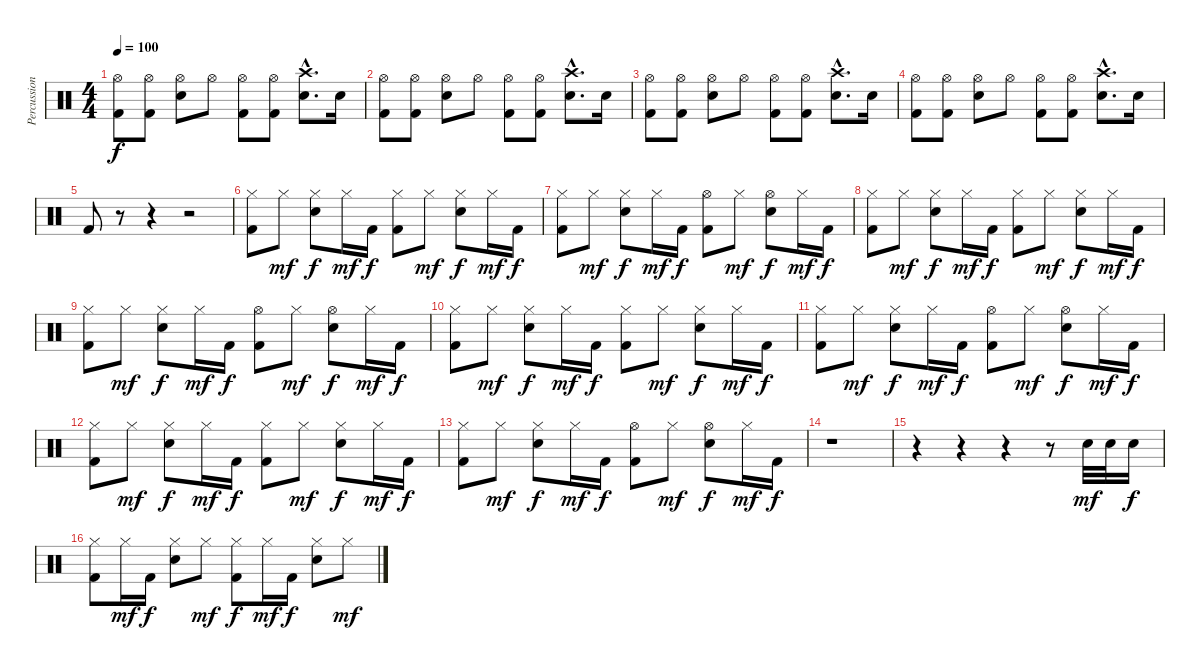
\track ("Percussioni" "Percussion") {instrument percussion}
\staff {score}
\articulation defaults
\ts (4 4)
\tempo 100
\clef neutral
\ks c
("Hi-Hat (open)" "Kick (hit) 2").8{dy f} ("Hi-Hat (open)" "Kick (hit) 2").8 ("Hi-Hat (open)" "Snare (hit) 2").8 "Hi-Hat (open)".8 ("Hi-Hat (open)" "Kick (hit) 2").8 ("Hi-Hat (open)" "Kick (hit) 2").8 ("Crash high (hit)"{hac} "Snare (hit) 2"{hac}).8{d} "Snare (hit) 2".16 |
("Hi-Hat (open)" "Kick (hit) 2").8 ("Hi-Hat (open)" "Kick (hit) 2").8 ("Hi-Hat (open)" "Snare (hit) 2").8 "Hi-Hat (open)".8 ("Hi-Hat (open)" "Kick (hit) 2").8 ("Hi-Hat (open)" "Kick (hit) 2").8 ("Crash high (hit)"{hac} "Snare (hit) 2"{hac}).8{d} "Snare (hit) 2".16 |
("Hi-Hat (open)" "Kick (hit) 2").8 ("Hi-Hat (open)" "Kick (hit) 2").8 ("Hi-Hat (open)" "Snare (hit) 2").8 "Hi-Hat (open)".8 ("Hi-Hat (open)" "Kick (hit) 2").8 ("Hi-Hat (open)" "Kick (hit) 2").8 ("Crash high (hit)"{hac} "Snare (hit) 2"{hac}).8{d} "Snare (hit) 2".16 |
("Hi-Hat (open)" "Kick (hit) 2").8 ("Hi-Hat (open)" "Kick (hit) 2").8 ("Hi-Hat (open)" "Snare (hit) 2").8 "Hi-Hat (open)".8 ("Hi-Hat (open)" "Kick (hit) 2").8 ("Hi-Hat (open)" "Kick (hit) 2").8 ("Crash high (hit)"{hac} "Snare (hit) 2"{hac}).8{d} "Snare (hit) 2".16 |
"Kick (hit) 2".8 r.8 r.4 r.2 |
("Hi-Hat (closed)" "Kick (hit) 2").8 "Hi-Hat (closed)".8{dy mf} ("Hi-Hat (closed)" "Snare (hit) 2").8{dy f} "Hi-Hat (closed)".16{dy mf} "Kick (hit) 2".16{dy f} ("Hi-Hat (closed)" "Kick (hit) 2").8 "Hi-Hat (closed)".8{dy mf} ("Hi-Hat (closed)" "Snare (hit) 2").8{dy f} "Hi-Hat (closed)".16{dy mf} "Kick (hit) 2".16{dy f} |
("Hi-Hat (closed)" "Kick (hit) 2").8 "Hi-Hat (closed)".8{dy mf} ("Hi-Hat (closed)" "Snare (hit) 2").8{dy f} "Hi-Hat (closed)".16{dy mf} "Kick (hit) 2".16{dy f} ("Hi-Hat (open)" "Kick (hit) 2").8 "Hi-Hat (closed)".8{dy mf} ("Hi-Hat (open)" "Snare (hit) 2").8{dy f} "Hi-Hat (closed)".16{dy mf} "Kick (hit) 2".16{dy f} |
("Hi-Hat (closed)" "Kick (hit) 2").8 "Hi-Hat (closed)".8{dy mf} ("Hi-Hat (closed)" "Snare (hit) 2").8{dy f} "Hi-Hat (closed)".16{dy mf} "Kick (hit) 2".16{dy f} ("Hi-Hat (closed)" "Kick (hit) 2").8 "Hi-Hat (closed)".8{dy mf} ("Hi-Hat (closed)" "Snare (hit) 2").8{dy f} "Hi-Hat (closed)".16{dy mf} "Kick (hit) 2".16{dy f} |
("Hi-Hat (closed)" "Kick (hit) 2").8 "Hi-Hat (closed)".8{dy mf} ("Hi-Hat (closed)" "Snare (hit) 2").8{dy f} "Hi-Hat (closed)".16{dy mf} "Kick (hit) 2".16{dy f} ("Hi-Hat (open)" "Kick (hit) 2").8 "Hi-Hat (closed)".8{dy mf} ("Hi-Hat (open)" "Snare (hit) 2").8{dy f} "Hi-Hat (closed)".16{dy mf} "Kick (hit) 2".16{dy f} |
("Hi-Hat (closed)" "Kick (hit) 2").8 "Hi-Hat (closed)".8{dy mf} ("Hi-Hat (closed)" "Snare (hit) 2").8{dy f} "Hi-Hat (closed)".16{dy mf} "Kick (hit) 2".16{dy f} ("Hi-Hat (closed)" "Kick (hit) 2").8 "Hi-Hat (closed)".8{dy mf} ("Hi-Hat (closed)" "Snare (hit) 2").8{dy f} "Hi-Hat (closed)".16{dy mf} "Kick (hit) 2".16{dy f} |
("Hi-Hat (closed)" "Kick (hit) 2").8 "Hi-Hat (closed)".8{dy mf} ("Hi-Hat (closed)" "Snare (hit) 2").8{dy f} "Hi-Hat (closed)".16{dy mf} "Kick (hit) 2".16{dy f} ("Hi-Hat (open)" "Kick (hit) 2").8 "Hi-Hat (closed)".8{dy mf} ("Hi-Hat (open)" "Snare (hit) 2").8{dy f} "Hi-Hat (closed)".16{dy mf} "Kick (hit) 2".16{dy f} |
("Hi-Hat (closed)" "Kick (hit) 2").8 "Hi-Hat (closed)".8{dy mf} ("Hi-Hat (closed)" "Snare (hit) 2").8{dy f} "Hi-Hat (closed)".16{dy mf} "Kick (hit) 2".16{dy f} ("Hi-Hat (closed)" "Kick (hit) 2").8 "Hi-Hat (closed)".8{dy mf} ("Hi-Hat (closed)" "Snare (hit) 2").8{dy f} "Hi-Hat (closed)".16{dy mf} "Kick (hit) 2".16{dy f} |
("Hi-Hat (closed)" "Kick (hit) 2").8 "Hi-Hat (closed)".8{dy mf} ("Hi-Hat (closed)" "Snare (hit) 2").8{dy f} "Hi-Hat (closed)".16{dy mf} "Kick (hit) 2".16{dy f} ("Hi-Hat (open)" "Kick (hit) 2").8 "Hi-Hat (closed)".8{dy mf} ("Hi-Hat (open)" "Snare (hit) 2").8{dy f} "Hi-Hat (closed)".16{dy mf} "Kick (hit) 2".16{dy f} |
r.1 |
r.4 r.4 r.4 r.8 "Snare (hit) 2".32{dy mf} "Snare (hit) 2".32 "Snare (hit) 2".16{dy f} |
("Hi-Hat (closed)" "Kick (hit) 2").8 "Hi-Hat (closed)".16{dy mf} "Kick (hit) 2".16{dy f} ("Hi-Hat (closed)" "Snare (hit) 2").8 "Hi-Hat (closed)".8{dy mf} ("Hi-Hat (closed)" "Kick (hit) 2").8{dy f} "Hi-Hat (closed)".16{dy mf} "Kick (hit) 2".16{dy f} ("Hi-Hat (closed)" "Snare (hit) 2").8 "Hi-Hat (closed)".8{dy mf}
